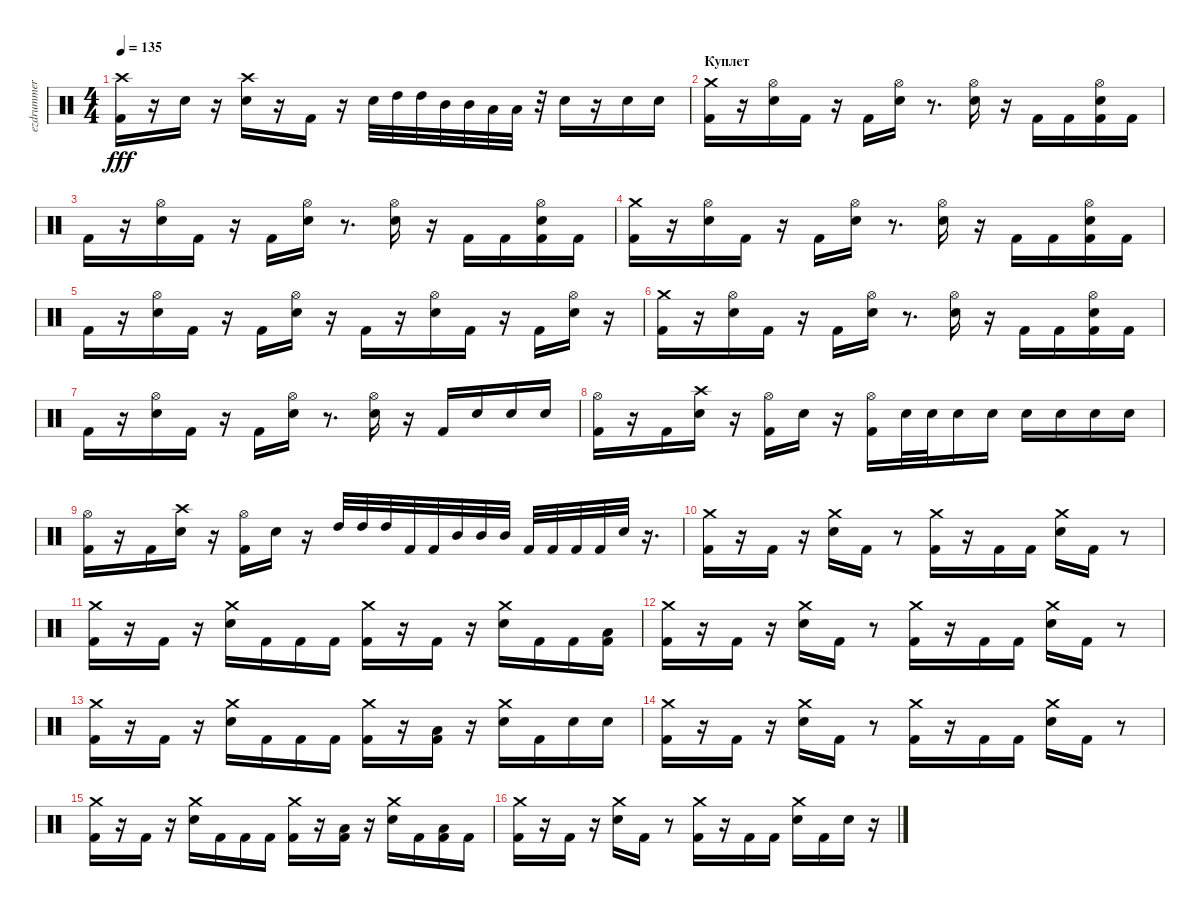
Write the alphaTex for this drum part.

\track ("ezdrummer 01" "ezdrummer ") {instrument percussion}
\staff {score}
\articulation defaults
\ts (4 4)
\tempo 135
\clef neutral
\ks c
("Kick (hit) 2" "Crash high (hit)").16{dy fff} r.16 "Snare (hit) 2".16 r.16 ("Snare (hit) 2" "Crash high (hit)").16 r.16 "Kick (hit) 2".16 r.16 "Snare (hit) 2".32 "High Tom (hit)".32 "High Tom (hit)".32 "Mid Tom (hit)".32 "Mid Tom (hit)".32 "Low Tom (hit)".32 "Low Tom (hit)".32 r.32 "Snare (hit) 2".16 r.16 "Snare (hit) 2".16 "Snare (hit) 2".16 |
\section ("" "Куплет")
("Kick (hit) 2" "Crash medium (hit)").16 r.16 ("Snare (hit) 2" "Hi-Hat (open)").16 "Kick (hit) 2".16 r.16 "Kick (hit) 2".16 ("Snare (hit) 2" "Hi-Hat (open)").16 r.8{d} ("Snare (hit) 2" "Hi-Hat (open)").16 r.16 "Kick (hit) 2".16 "Kick (hit) 2".16 ("Kick (hit) 2" "Snare (hit) 2" "Hi-Hat (open)").16 "Kick (hit) 2".16 |
"Kick (hit) 2".16 r.16 ("Snare (hit) 2" "Hi-Hat (open)").16 "Kick (hit) 2".16 r.16 "Kick (hit) 2".16 ("Snare (hit) 2" "Hi-Hat (open)").16 r.8{d} ("Snare (hit) 2" "Hi-Hat (open)").16 r.16 "Kick (hit) 2".16 "Kick (hit) 2".16 ("Kick (hit) 2" "Snare (hit) 2" "Hi-Hat (open)").16 "Kick (hit) 2".16 |
("Kick (hit) 2" "Crash medium (hit)").16 r.16 ("Snare (hit) 2" "Hi-Hat (open)").16 "Kick (hit) 2".16 r.16 "Kick (hit) 2".16 ("Snare (hit) 2" "Hi-Hat (open)").16 r.8{d} ("Snare (hit) 2" "Hi-Hat (open)").16 r.16 "Kick (hit) 2".16 "Kick (hit) 2".16 ("Kick (hit) 2" "Snare (hit) 2" "Hi-Hat (open)").16 "Kick (hit) 2".16 |
"Kick (hit) 2".16 r.16 ("Snare (hit) 2" "Hi-Hat (open)").16 "Kick (hit) 2".16 r.16 "Kick (hit) 2".16 ("Snare (hit) 2" "Hi-Hat (open)").16 r.16 "Kick (hit) 2".16 r.16 ("Snare (hit) 2" "Hi-Hat (open)").16 "Kick (hit) 2".16 r.16 "Kick (hit) 2".16 ("Snare (hit) 2" "Hi-Hat (open)").16 r.16 |
("Kick (hit) 2" "Crash medium (hit)").16 r.16 ("Snare (hit) 2" "Hi-Hat (open)").16 "Kick (hit) 2".16 r.16 "Kick (hit) 2".16 ("Snare (hit) 2" "Hi-Hat (open)").16 r.8{d} ("Snare (hit) 2" "Hi-Hat (open)").16 r.16 "Kick (hit) 2".16 "Kick (hit) 2".16 ("Kick (hit) 2" "Snare (hit) 2" "Hi-Hat (open)").16 "Kick (hit) 2".16 |
"Kick (hit) 2".16 r.16 ("Snare (hit) 2" "Hi-Hat (open)").16 "Kick (hit) 2".16 r.16 "Kick (hit) 2".16 ("Snare (hit) 2" "Hi-Hat (open)").16 r.8{d} ("Snare (hit) 2" "Hi-Hat (open)").16 r.16 "Kick (hit) 2".16 "Snare (hit) 2".16 "Snare (hit) 2".16 "Snare (hit) 2".16 |
("Kick (hit) 2" "Hi-Hat (open)").16 r.16 "Kick (hit) 2".16 ("Snare (hit) 2" "Crash high (hit)").16 r.16 ("Kick (hit) 2" "Hi-Hat (open)").16 "Snare (hit) 2".16 r.16 ("Kick (hit) 2" "Hi-Hat (open)").16 "Snare (hit) 2".32 "Snare (hit) 2".32 "Snare (hit) 2".16 "Snare (hit) 2".16 "Snare (hit) 2".16 "Snare (hit) 2".16 "Snare (hit) 2".16 "Snare (hit) 2".16 |
("Kick (hit) 2" "Hi-Hat (open)").16 r.16 "Kick (hit) 2".16 ("Snare (hit) 2" "Crash high (hit)").16 r.16 ("Kick (hit) 2" "Hi-Hat (open)").16 "Snare (hit) 2".16 r.16 "High Tom (hit)".32 "High Tom (hit)".32 "High Tom (hit)".32 "Kick (hit) 2".32 "Kick (hit) 2".32 "Mid Tom (hit)".32 "Mid Tom (hit)".32 "Mid Tom (hit)".32 "Kick (hit) 2".32 "Kick (hit) 2".32 "Kick (hit) 2".32 "Kick (hit) 2".32 "Snare (hit) 2".32 r.16{d} |
("Kick (hit) 2" "Crash medium (hit)").16 r.16 "Kick (hit) 2".16 r.16 ("Snare (hit) 2" "Crash medium (hit)").16 "Kick (hit) 2".16 r.8 ("Kick (hit) 2" "Crash medium (hit)").16 r.16 "Kick (hit) 2".16 "Kick (hit) 2".16 ("Snare (hit) 2" "Crash medium (hit)").16 "Kick (hit) 2".16 r.8 |
("Kick (hit) 2" "Crash medium (hit)").16 r.16 "Kick (hit) 2".16 r.16 ("Snare (hit) 2" "Crash medium (hit)").16 "Kick (hit) 2".16 "Kick (hit) 2".16 "Kick (hit) 2".16 ("Kick (hit) 2" "Crash medium (hit)").16 r.16 "Kick (hit) 2".16 r.16 ("Snare (hit) 2" "Crash medium (hit)").16 "Kick (hit) 2".16 "Kick (hit) 2".16 ("Kick (hit) 2" "Low Tom (hit)").16 |
("Kick (hit) 2" "Crash medium (hit)").16 r.16 "Kick (hit) 2".16 r.16 ("Snare (hit) 2" "Crash medium (hit)").16 "Kick (hit) 2".16 r.8 ("Kick (hit) 2" "Crash medium (hit)").16 r.16 "Kick (hit) 2".16 "Kick (hit) 2".16 ("Snare (hit) 2" "Crash medium (hit)").16 "Kick (hit) 2".16 r.8 |
("Kick (hit) 2" "Crash medium (hit)").16 r.16 "Kick (hit) 2".16 r.16 ("Snare (hit) 2" "Crash medium (hit)").16 "Kick (hit) 2".16 "Kick (hit) 2".16 "Kick (hit) 2".16 ("Kick (hit) 2" "Crash medium (hit)").16 r.16 ("Kick (hit) 2" "Low Tom (hit)").16 r.16 ("Snare (hit) 2" "Crash medium (hit)").16 "Kick (hit) 2".16 "Snare (hit) 2".16 "Snare (hit) 2".16 |
("Kick (hit) 2" "Crash medium (hit)").16 r.16 "Kick (hit) 2".16 r.16 ("Snare (hit) 2" "Crash medium (hit)").16 "Kick (hit) 2".16 r.8 ("Kick (hit) 2" "Crash medium (hit)").16 r.16 "Kick (hit) 2".16 "Kick (hit) 2".16 ("Snare (hit) 2" "Crash medium (hit)").16 "Kick (hit) 2".16 r.8 |
("Kick (hit) 2" "Crash medium (hit)").16 r.16 "Kick (hit) 2".16 r.16 ("Snare (hit) 2" "Crash medium (hit)").16 "Kick (hit) 2".16 "Kick (hit) 2".16 "Kick (hit) 2".16 ("Kick (hit) 2" "Crash medium (hit)").16 r.16 ("Kick (hit) 2" "Low Tom (hit)").16 r.16 ("Snare (hit) 2" "Crash medium (hit)").16 "Kick (hit) 2".16 ("Kick (hit) 2" "Low Tom (hit)").16 "Kick (hit) 2".16 |
("Kick (hit) 2" "Crash medium (hit)").16 r.16 "Kick (hit) 2".16 r.16 ("Snare (hit) 2" "Crash medium (hit)").16 "Kick (hit) 2".16 r.8 ("Kick (hit) 2" "Crash medium (hit)").16 r.16 "Kick (hit) 2".16 "Kick (hit) 2".16 ("Snare (hit) 2" "Crash medium (hit)").16 "Kick (hit) 2".16 "Snare (hit) 2".16 r.16
